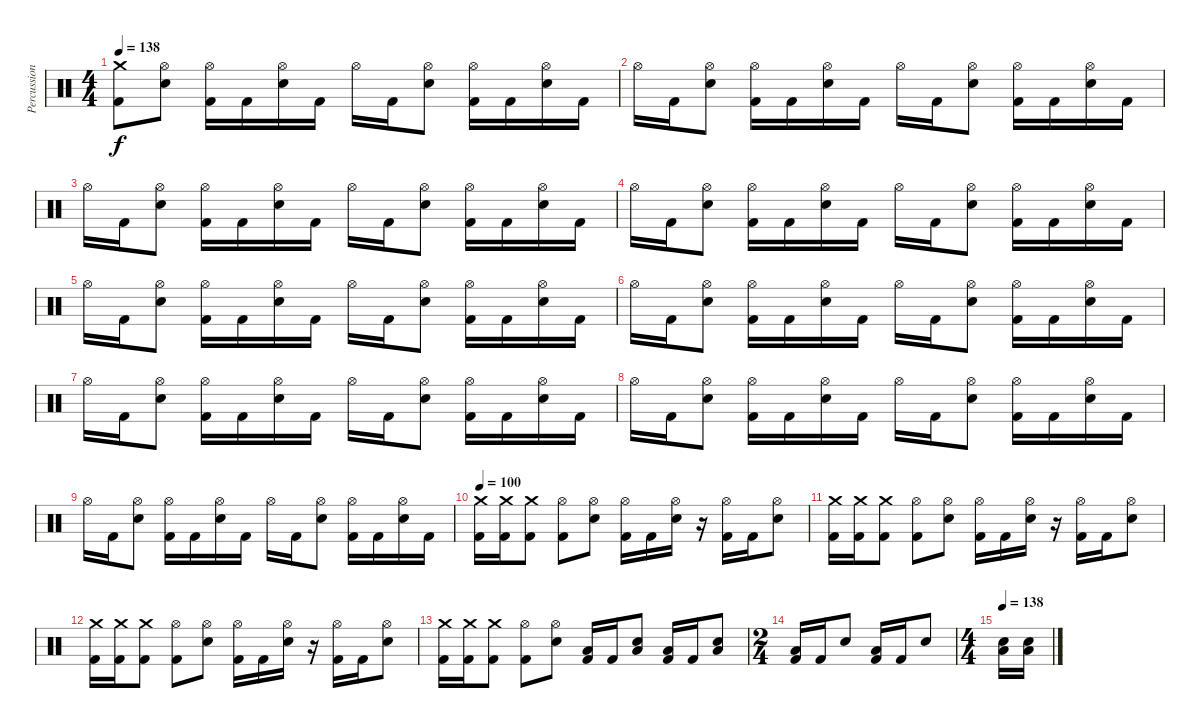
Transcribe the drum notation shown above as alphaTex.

\track ("Percussion" "Percussion") {instrument percussion}
\staff {score}
\articulation defaults
\ts (4 4)
\tempo 138
\clef neutral
\ks c
("Crash medium (hit)" "Kick (hit) 2").8{dy f} ("Hi-Hat (open)" "Snare (hit) 2").8 ("Hi-Hat (open)" "Kick (hit) 2").16 "Kick (hit) 2".16 ("Hi-Hat (open)" "Snare (hit) 2").16 "Kick (hit) 2".16 "Hi-Hat (open)".16 "Kick (hit) 2".16 ("Hi-Hat (open)" "Snare (hit) 2").8 ("Hi-Hat (open)" "Kick (hit) 2").16 "Kick (hit) 2".16 ("Hi-Hat (open)" "Snare (hit) 2").16 "Kick (hit) 2".16 |
"Hi-Hat (open)".16 "Kick (hit) 2".16 ("Hi-Hat (open)" "Snare (hit) 2").8 ("Hi-Hat (open)" "Kick (hit) 2").16 "Kick (hit) 2".16 ("Hi-Hat (open)" "Snare (hit) 2").16 "Kick (hit) 2".16 "Hi-Hat (open)".16 "Kick (hit) 2".16 ("Hi-Hat (open)" "Snare (hit) 2").8 ("Hi-Hat (open)" "Kick (hit) 2").16 "Kick (hit) 2".16 ("Hi-Hat (open)" "Snare (hit) 2").16 "Kick (hit) 2".16 |
"Hi-Hat (open)".16 "Kick (hit) 2".16 ("Hi-Hat (open)" "Snare (hit) 2").8 ("Hi-Hat (open)" "Kick (hit) 2").16 "Kick (hit) 2".16 ("Hi-Hat (open)" "Snare (hit) 2").16 "Kick (hit) 2".16 "Hi-Hat (open)".16 "Kick (hit) 2".16 ("Hi-Hat (open)" "Snare (hit) 2").8 ("Hi-Hat (open)" "Kick (hit) 2").16 "Kick (hit) 2".16 ("Hi-Hat (open)" "Snare (hit) 2").16 "Kick (hit) 2".16 |
"Hi-Hat (open)".16 "Kick (hit) 2".16 ("Hi-Hat (open)" "Snare (hit) 2").8 ("Hi-Hat (open)" "Kick (hit) 2").16 "Kick (hit) 2".16 ("Hi-Hat (open)" "Snare (hit) 2").16 "Kick (hit) 2".16 "Hi-Hat (open)".16 "Kick (hit) 2".16 ("Hi-Hat (open)" "Snare (hit) 2").8 ("Hi-Hat (open)" "Kick (hit) 2").16 "Kick (hit) 2".16 ("Hi-Hat (open)" "Snare (hit) 2").16 "Kick (hit) 2".16 |
"Hi-Hat (open)".16 "Kick (hit) 2".16 ("Hi-Hat (open)" "Snare (hit) 2").8 ("Hi-Hat (open)" "Kick (hit) 2").16 "Kick (hit) 2".16 ("Hi-Hat (open)" "Snare (hit) 2").16 "Kick (hit) 2".16 "Hi-Hat (open)".16 "Kick (hit) 2".16 ("Hi-Hat (open)" "Snare (hit) 2").8 ("Hi-Hat (open)" "Kick (hit) 2").16 "Kick (hit) 2".16 ("Hi-Hat (open)" "Snare (hit) 2").16 "Kick (hit) 2".16 |
"Hi-Hat (open)".16 "Kick (hit) 2".16 ("Hi-Hat (open)" "Snare (hit) 2").8 ("Hi-Hat (open)" "Kick (hit) 2").16 "Kick (hit) 2".16 ("Hi-Hat (open)" "Snare (hit) 2").16 "Kick (hit) 2".16 "Hi-Hat (open)".16 "Kick (hit) 2".16 ("Hi-Hat (open)" "Snare (hit) 2").8 ("Hi-Hat (open)" "Kick (hit) 2").16 "Kick (hit) 2".16 ("Hi-Hat (open)" "Snare (hit) 2").16 "Kick (hit) 2".16 |
"Hi-Hat (open)".16 "Kick (hit) 2".16 ("Hi-Hat (open)" "Snare (hit) 2").8 ("Hi-Hat (open)" "Kick (hit) 2").16 "Kick (hit) 2".16 ("Hi-Hat (open)" "Snare (hit) 2").16 "Kick (hit) 2".16 "Hi-Hat (open)".16 "Kick (hit) 2".16 ("Hi-Hat (open)" "Snare (hit) 2").8 ("Hi-Hat (open)" "Kick (hit) 2").16 "Kick (hit) 2".16 ("Hi-Hat (open)" "Snare (hit) 2").16 "Kick (hit) 2".16 |
"Hi-Hat (open)".16 "Kick (hit) 2".16 ("Hi-Hat (open)" "Snare (hit) 2").8 ("Hi-Hat (open)" "Kick (hit) 2").16 "Kick (hit) 2".16 ("Hi-Hat (open)" "Snare (hit) 2").16 "Kick (hit) 2".16 "Hi-Hat (open)".16 "Kick (hit) 2".16 ("Hi-Hat (open)" "Snare (hit) 2").8 ("Hi-Hat (open)" "Kick (hit) 2").16 "Kick (hit) 2".16 ("Hi-Hat (open)" "Snare (hit) 2").16 "Kick (hit) 2".16 |
"Hi-Hat (open)".16 "Kick (hit) 2".16 ("Hi-Hat (open)" "Snare (hit) 2").8 ("Hi-Hat (open)" "Kick (hit) 2").16 "Kick (hit) 2".16 ("Hi-Hat (open)" "Snare (hit) 2").16 "Kick (hit) 2".16 "Hi-Hat (open)".16 "Kick (hit) 2".16 ("Hi-Hat (open)" "Snare (hit) 2").8 ("Hi-Hat (open)" "Kick (hit) 2").16 "Kick (hit) 2".16 ("Hi-Hat (open)" "Snare (hit) 2").16 "Kick (hit) 2".16 |
\tempo 100
("Crash medium (hit)" "Kick (hit) 2").16 ("Crash medium (hit)" "Kick (hit) 2").16 ("Crash medium (hit)" "Kick (hit) 2").8 ("Hi-Hat (open)" "Kick (hit) 2").8 ("Hi-Hat (open)" "Snare (hit) 2").8 ("Hi-Hat (open)" "Kick (hit) 2").16 "Kick (hit) 2".16 ("Hi-Hat (open)" "Snare (hit) 2").16 r.16 ("Hi-Hat (open)" "Kick (hit) 2").16 "Kick (hit) 2".16 ("Hi-Hat (open)" "Snare (hit) 2").8 |
("Crash medium (hit)" "Kick (hit) 2").16 ("Crash medium (hit)" "Kick (hit) 2").16 ("Crash medium (hit)" "Kick (hit) 2").8 ("Hi-Hat (open)" "Kick (hit) 2").8 ("Hi-Hat (open)" "Snare (hit) 2").8 ("Hi-Hat (open)" "Kick (hit) 2").16 "Kick (hit) 2".16 ("Hi-Hat (open)" "Snare (hit) 2").16 r.16 ("Hi-Hat (open)" "Kick (hit) 2").16 "Kick (hit) 2".16 ("Hi-Hat (open)" "Snare (hit) 2").8 |
("Crash medium (hit)" "Kick (hit) 2").16 ("Crash medium (hit)" "Kick (hit) 2").16 ("Crash medium (hit)" "Kick (hit) 2").8 ("Hi-Hat (open)" "Kick (hit) 2").8 ("Hi-Hat (open)" "Snare (hit) 2").8 ("Hi-Hat (open)" "Kick (hit) 2").16 "Kick (hit) 2".16 ("Hi-Hat (open)" "Snare (hit) 2").16 r.16 ("Hi-Hat (open)" "Kick (hit) 2").16 "Kick (hit) 2".16 ("Hi-Hat (open)" "Snare (hit) 2").8 |
("Crash medium (hit)" "Kick (hit) 2").16 ("Crash medium (hit)" "Kick (hit) 2").16 ("Crash medium (hit)" "Kick (hit) 2").8 ("Hi-Hat (open)" "Kick (hit) 2").8 ("Hi-Hat (open)" "Snare (hit) 2").8 ("Low Floor Tom (hit)" "Kick (hit) 2").16 "Kick (hit) 2".16 ("Snare (hit) 2" "Low Floor Tom (hit)").8 ("Low Floor Tom (hit)" "Kick (hit) 2").16 "Kick (hit) 2".16 ("Snare (hit) 2" "Low Floor Tom (hit)").8 |
\ts (2 4)
("Low Floor Tom (hit)" "Kick (hit) 2").16 "Kick (hit) 2".16 "Snare (hit) 2".8 ("Low Floor Tom (hit)" "Kick (hit) 2").16 "Kick (hit) 2".16 "Snare (hit) 2".8 |
\ts (4 4)
\tempo 138
("Snare (hit) 2" "Low Floor Tom (hit)").16 ("Snare (hit) 2" "Low Floor Tom (hit)").16
